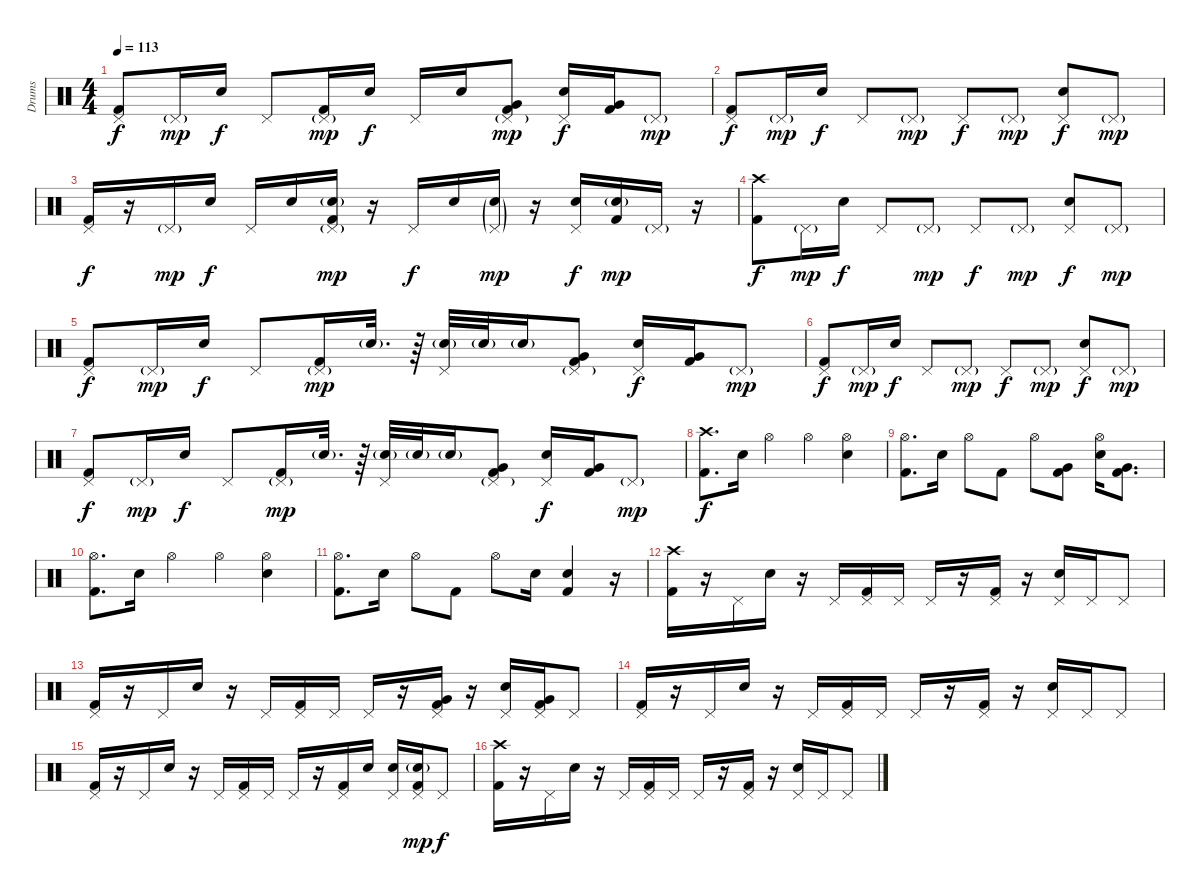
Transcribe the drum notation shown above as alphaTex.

\track ("Drums" "Drums") {instrument percussion}
\staff {score}
\articulation defaults
\ts (4 4)
\tempo 113
\clef neutral
\ks c
("Pedal Hi-Hat (hit)" "Kick (hit) 2").8{dy f} "Pedal Hi-Hat (hit)"{g}.16{dy mp} "Snare (hit) 2".16{dy f} "Pedal Hi-Hat (hit)".8 ("Pedal Hi-Hat (hit)"{g} "Kick (hit) 2").16{dy mp} "Snare (hit) 2".16{dy f} "Pedal Hi-Hat (hit)".16 "Snare (hit) 2".16 ("Pedal Hi-Hat (hit)"{g} "Very Low Tom (hit)" "Kick (hit) 2").8{dy mp} ("Pedal Hi-Hat (hit)" "Snare (hit) 2").16{dy f} ("Very Low Tom (hit)" "Kick (hit) 2").16 "Pedal Hi-Hat (hit)"{g}.8{dy mp} |
("Pedal Hi-Hat (hit)" "Kick (hit) 2").8{dy f} "Pedal Hi-Hat (hit)"{g}.16{dy mp} "Snare (hit) 2".16{dy f} "Pedal Hi-Hat (hit)".8 "Pedal Hi-Hat (hit)"{g}.8{dy mp} "Pedal Hi-Hat (hit)".8{dy f} "Pedal Hi-Hat (hit)"{g}.8{dy mp} ("Pedal Hi-Hat (hit)" "Snare (hit) 2").8{dy f} "Pedal Hi-Hat (hit)"{g}.8{dy mp} |
("Pedal Hi-Hat (hit)" "Kick (hit) 2").16{dy f} r.16 "Pedal Hi-Hat (hit)"{g}.16{dy mp} "Snare (hit) 2".16{dy f} "Pedal Hi-Hat (hit)".16 "Snare (hit) 2".16 ("Pedal Hi-Hat (hit)"{g} "Snare (hit) 2"{g} "Kick (hit) 2").16{dy mp} r.16 "Pedal Hi-Hat (hit)".16{dy f} "Snare (hit) 2".16 ("Pedal Hi-Hat (hit)"{g} "Snare (hit) 2"{g}).16{dy mp} r.16 ("Pedal Hi-Hat (hit)" "Snare (hit) 2").16{dy f} ("Snare (hit) 2"{g} "Kick (hit) 2").16{dy mp} "Pedal Hi-Hat (hit)"{g}.16 r.16 |
("Crash high (hit)" "Kick (hit) 2").8{dy f} "Pedal Hi-Hat (hit)"{g}.16{dy mp} "Snare (hit) 2".16{dy f} "Pedal Hi-Hat (hit)".8 "Pedal Hi-Hat (hit)"{g}.8{dy mp} "Pedal Hi-Hat (hit)".8{dy f} "Pedal Hi-Hat (hit)"{g}.8{dy mp} ("Pedal Hi-Hat (hit)" "Snare (hit) 2").8{dy f} "Pedal Hi-Hat (hit)"{g}.8{dy mp} |
("Pedal Hi-Hat (hit)" "Kick (hit) 2").8{dy f} "Pedal Hi-Hat (hit)"{g}.16{dy mp} "Snare (hit) 2".16{dy f} "Pedal Hi-Hat (hit)".8 ("Pedal Hi-Hat (hit)"{g} "Kick (hit) 2").16{dy mp} "Snare (hit) 2"{g}.32{d} r.64 ("Pedal Hi-Hat (hit)" "Snare (hit) 2"{g}).32 "Snare (hit) 2"{g}.32 "Snare (hit) 2"{g}.16 ("Pedal Hi-Hat (hit)"{g} "Very Low Tom (hit)" "Kick (hit) 2").8 ("Pedal Hi-Hat (hit)" "Snare (hit) 2").16{dy f} ("Very Low Tom (hit)" "Kick (hit) 2").16 "Pedal Hi-Hat (hit)"{g}.8{dy mp} |
("Pedal Hi-Hat (hit)" "Kick (hit) 2").8{dy f} "Pedal Hi-Hat (hit)"{g}.16{dy mp} "Snare (hit) 2".16{dy f} "Pedal Hi-Hat (hit)".8 "Pedal Hi-Hat (hit)"{g}.8{dy mp} "Pedal Hi-Hat (hit)".8{dy f} "Pedal Hi-Hat (hit)"{g}.8{dy mp} ("Pedal Hi-Hat (hit)" "Snare (hit) 2").8{dy f} "Pedal Hi-Hat (hit)"{g}.8{dy mp} |
("Pedal Hi-Hat (hit)" "Kick (hit) 2").8{dy f} "Pedal Hi-Hat (hit)"{g}.16{dy mp} "Snare (hit) 2".16{dy f} "Pedal Hi-Hat (hit)".8 ("Pedal Hi-Hat (hit)"{g} "Kick (hit) 2").16{dy mp} "Snare (hit) 2"{g}.32{d} r.64 ("Pedal Hi-Hat (hit)" "Snare (hit) 2"{g}).32 "Snare (hit) 2"{g}.32 "Snare (hit) 2"{g}.16 ("Pedal Hi-Hat (hit)"{g} "Very Low Tom (hit)" "Kick (hit) 2").8 ("Pedal Hi-Hat (hit)" "Snare (hit) 2").16{dy f} ("Very Low Tom (hit)" "Kick (hit) 2").16 "Pedal Hi-Hat (hit)"{g}.8{dy mp} |
("Crash high (hit)" "Kick (hit) 2").8{d dy f} "Snare (hit) 2".16 "Hi-Hat (open)".4 "Hi-Hat (open)".4 ("Hi-Hat (open)" "Snare (hit) 2").4 |
("Hi-Hat (open)" "Kick (hit) 2").8{d} "Snare (hit) 2".16 "Hi-Hat (open)".8 "Kick (hit) 2".8 "Hi-Hat (open)".8 ("Very Low Tom (hit)" "Kick (hit) 2").8 ("Hi-Hat (open)" "Snare (hit) 2").16 ("Very Low Tom (hit)" "Kick (hit) 2").8{d} |
("Hi-Hat (open)" "Kick (hit) 2").8{d} "Snare (hit) 2".16 "Hi-Hat (open)".4 "Hi-Hat (open)".4 ("Hi-Hat (open)" "Snare (hit) 2").4 |
("Hi-Hat (open)" "Kick (hit) 2").8{d} "Snare (hit) 2".16 "Hi-Hat (open)".8 "Kick (hit) 2".8 "Hi-Hat (open)".8 "Snare (hit) 2".16 ("Snare (hit) 2" "Kick (hit) 2").4 r.16 |
("Crash high (hit)" "Kick (hit) 2").16 r.16 "Pedal Hi-Hat (hit)".16 "Snare (hit) 2".16 r.16 "Pedal Hi-Hat (hit)".16 ("Pedal Hi-Hat (hit)" "Kick (hit) 2").16 "Pedal Hi-Hat (hit)".16 "Pedal Hi-Hat (hit)".16 r.16 ("Pedal Hi-Hat (hit)" "Kick (hit) 2").16 r.16 ("Pedal Hi-Hat (hit)" "Snare (hit) 2").16 "Pedal Hi-Hat (hit)".16 "Pedal Hi-Hat (hit)".8 |
("Pedal Hi-Hat (hit)" "Kick (hit) 2").16 r.16 "Pedal Hi-Hat (hit)".16 "Snare (hit) 2".16 r.16 "Pedal Hi-Hat (hit)".16 ("Pedal Hi-Hat (hit)" "Kick (hit) 2").16 "Pedal Hi-Hat (hit)".16 "Pedal Hi-Hat (hit)".16 r.16 ("Pedal Hi-Hat (hit)" "Very Low Tom (hit)" "Kick (hit) 2").16 r.16 ("Pedal Hi-Hat (hit)" "Snare (hit) 2").16 ("Pedal Hi-Hat (hit)" "Very Low Tom (hit)" "Kick (hit) 2").16 "Pedal Hi-Hat (hit)".8 |
("Pedal Hi-Hat (hit)" "Kick (hit) 2").16 r.16 "Pedal Hi-Hat (hit)".16 "Snare (hit) 2".16 r.16 "Pedal Hi-Hat (hit)".16 ("Pedal Hi-Hat (hit)" "Kick (hit) 2").16 "Pedal Hi-Hat (hit)".16 "Pedal Hi-Hat (hit)".16 r.16 ("Pedal Hi-Hat (hit)" "Kick (hit) 2").16 r.16 ("Pedal Hi-Hat (hit)" "Snare (hit) 2").16 "Pedal Hi-Hat (hit)".16 "Pedal Hi-Hat (hit)".8 |
("Pedal Hi-Hat (hit)" "Kick (hit) 2").16 r.16 "Pedal Hi-Hat (hit)".16 "Snare (hit) 2".16 r.16 "Pedal Hi-Hat (hit)".16 ("Pedal Hi-Hat (hit)" "Kick (hit) 2").16 "Pedal Hi-Hat (hit)".16 "Pedal Hi-Hat (hit)".16 r.16 ("Pedal Hi-Hat (hit)" "Kick (hit) 2").16 "Snare (hit) 2".16 ("Pedal Hi-Hat (hit)" "Snare (hit) 2").16 ("Pedal Hi-Hat (hit)" "Snare (hit) 2"{g} "Kick (hit) 2").16{dy mp} "Pedal Hi-Hat (hit)".8{dy f} |
("Crash high (hit)" "Kick (hit) 2").16 r.16 "Pedal Hi-Hat (hit)".16 "Snare (hit) 2".16 r.16 "Pedal Hi-Hat (hit)".16 ("Pedal Hi-Hat (hit)" "Kick (hit) 2").16 "Pedal Hi-Hat (hit)".16 "Pedal Hi-Hat (hit)".16 r.16 ("Pedal Hi-Hat (hit)" "Kick (hit) 2").16 r.16 ("Pedal Hi-Hat (hit)" "Snare (hit) 2").16 "Pedal Hi-Hat (hit)".16 "Pedal Hi-Hat (hit)".8
